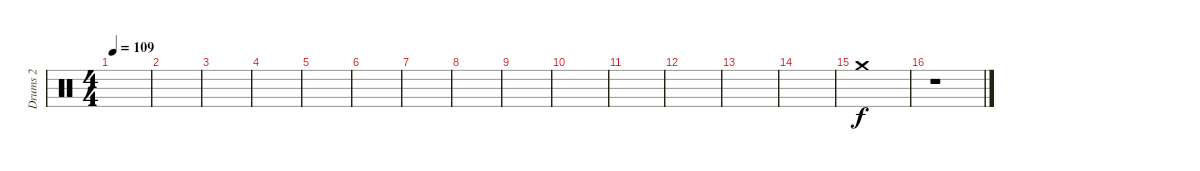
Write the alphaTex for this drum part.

\track ("Drums 2" "Drums 2") {instrument percussion}
\staff {score}
\articulation defaults
\ts (4 4)
\tempo 109
\clef neutral
\ks c
|
|
|
|
|
|
|
|
|
|
|
|
|
|
"Crash medium (hit)".1 |
r.1
